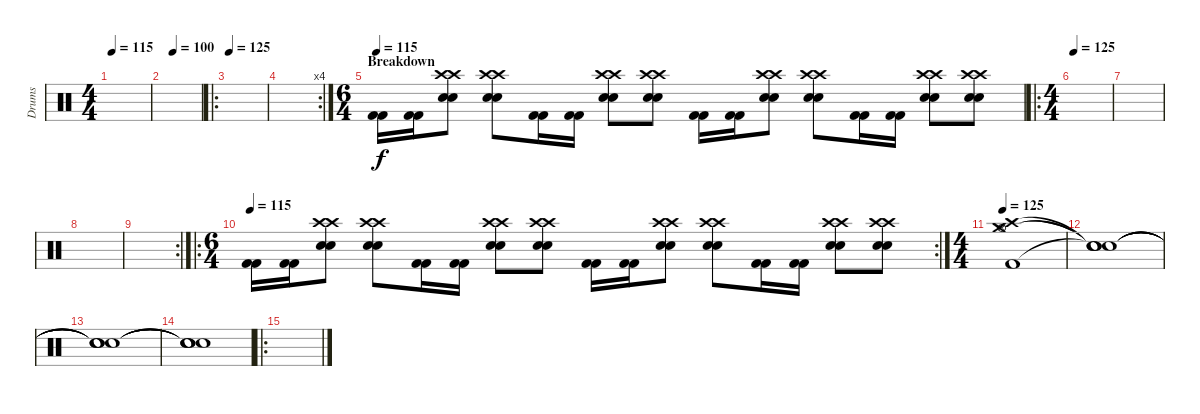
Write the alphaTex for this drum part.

\track ("Drums" "Drums") {instrument percussion}
\staff {score}
\articulation defaults
\ts (4 4)
\tempo 115
\clef neutral
\ks c
|
\tempo (100 0.25)
|
\ro
\tempo 125
|
\rc 4
|
\ts (6 4)
\section ("" "Breakdown")
\tempo 115
("Kick (hit) 2" "Kick (hit) 2").16 ("Kick (hit) 2" "Kick (hit) 2").16 ("Crash high (hit)" "Crash high (hit)" "Snare (hit) 2" "Snare (hit) 2").8 ("Crash high (hit)" "Crash high (hit)" "Snare (hit) 2" "Snare (hit) 2").8 ("Kick (hit) 2" "Kick (hit) 2").16 ("Kick (hit) 2" "Kick (hit) 2").16 ("Crash high (hit)" "Crash high (hit)" "Snare (hit) 2" "Snare (hit) 2").8 ("Crash high (hit)" "Crash high (hit)" "Snare (hit) 2" "Snare (hit) 2").8 ("Kick (hit) 2" "Kick (hit) 2").16 ("Kick (hit) 2" "Kick (hit) 2").16 ("Crash high (hit)" "Crash high (hit)" "Snare (hit) 2" "Snare (hit) 2").8 ("Crash high (hit)" "Crash high (hit)" "Snare (hit) 2" "Snare (hit) 2").8 ("Kick (hit) 2" "Kick (hit) 2").16 ("Kick (hit) 2" "Kick (hit) 2").16 ("Crash high (hit)" "Crash high (hit)" "Snare (hit) 2" "Snare (hit) 2").8 ("Crash high (hit)" "Crash high (hit)" "Snare (hit) 2" "Snare (hit) 2").8 |
\ro
\ts (4 4)
\tempo 125
|
|
|
\rc 2
|
\ro
\rc 2
\ts (6 4)
\tempo 115
("Kick (hit) 2" "Kick (hit) 2").16 ("Kick (hit) 2" "Kick (hit) 2").16 ("Crash high (hit)" "Crash high (hit)" "Snare (hit) 2" "Snare (hit) 2").8 ("Crash high (hit)" "Crash high (hit)" "Snare (hit) 2" "Snare (hit) 2").8 ("Kick (hit) 2" "Kick (hit) 2").16 ("Kick (hit) 2" "Kick (hit) 2").16 ("Crash high (hit)" "Crash high (hit)" "Snare (hit) 2" "Snare (hit) 2").8 ("Crash high (hit)" "Crash high (hit)" "Snare (hit) 2" "Snare (hit) 2").8 ("Kick (hit) 2" "Kick (hit) 2").16 ("Kick (hit) 2" "Kick (hit) 2").16 ("Crash high (hit)" "Crash high (hit)" "Snare (hit) 2" "Snare (hit) 2").8 ("Crash high (hit)" "Crash high (hit)" "Snare (hit) 2" "Snare (hit) 2").8 ("Kick (hit) 2" "Kick (hit) 2").16 ("Kick (hit) 2" "Kick (hit) 2").16 ("Crash high (hit)" "Crash high (hit)" "Snare (hit) 2" "Snare (hit) 2").8 ("Crash high (hit)" "Crash high (hit)" "Snare (hit) 2" "Snare (hit) 2").8 |
\ts (4 4)
\tempo 125
("Kick (hit) 2" "Crash high (hit)" "Crash medium (hit)" "Hi-Hat (open)").1{volume 2} |
("Snare (hit)"{t} "Snare (hit)"{t} "Snare (hit)"{t} "Snare (hit)"{t}).1 |
("Snare (hit)"{t} "Snare (hit)"{t} "Snare (hit)"{t} "Snare (hit)"{t}).1 |
("Snare (hit)"{t} "Snare (hit)"{t} "Snare (hit)"{t} "Snare (hit)"{t}).1 |
\ro
